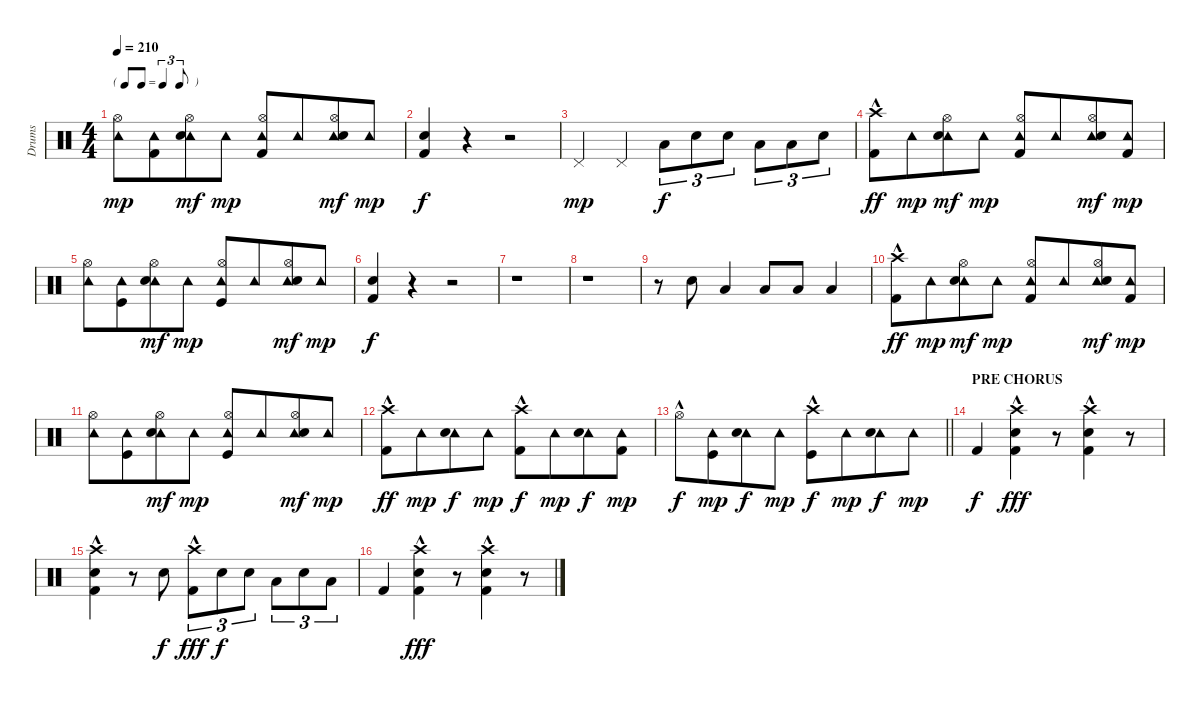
\track ("Drums" "Drums") {instrument percussion}
\staff {score}
\articulation defaults
\ts (4 4)
\tf triplet8th
\tempo 210
\clef neutral
\ks c
("Tambourine (hit)" "Hi-Hat (open)").8{dy mp} ("Tambourine (hit)" "Kick (hit) 2").8{beam merge} ("Tambourine (hit)" "Hi-Hat (open)" "Electric Snare (hit)").8{dy mf} "Tambourine (hit)".8{dy mp} ("Tambourine (hit)" "Hi-Hat (open)" "Kick (hit) 2").8 "Tambourine (hit)".8{beam merge} ("Tambourine (hit)" "Hi-Hat (open)" "Electric Snare (hit)").8{dy mf} "Tambourine (hit)".8{dy mp} |
("Electric Snare (hit)" "Kick (hit) 2").4{dy f} r.4 r.2 |
"Pedal Hi-Hat (hit)".4{dy mp} "Pedal Hi-Hat (hit)".4 "Low Tom (hit)".8{tu (3 2) dy f} "Electric Snare (hit)".8{tu (3 2)} "Electric Snare (hit)".8{tu (3 2)} "Low Tom (hit)".8{tu (3 2)} "Low Floor Tom (hit)".8{tu (3 2)} "Electric Snare (hit)".8{tu (3 2)} |
("Crash high (hit)"{hac} "Kick (hit) 2").8{dy ff} "Tambourine (hit)".8{dy mp beam merge} ("Tambourine (hit)" "Hi-Hat (open)" "Electric Snare (hit)").8{dy mf} "Tambourine (hit)".8{dy mp} ("Tambourine (hit)" "Hi-Hat (open)" "Kick (hit) 2").8 "Tambourine (hit)".8{beam merge} ("Tambourine (hit)" "Hi-Hat (open)" "Electric Snare (hit)").8{dy mf} ("Tambourine (hit)" "Kick (hit) 2").8{dy mp} |
("Tambourine (hit)" "Hi-Hat (open)").8 ("Tambourine (hit)" "Kick (hit)").8{beam merge} ("Tambourine (hit)" "Hi-Hat (open)" "Electric Snare (hit)").8{dy mf} "Tambourine (hit)".8{dy mp} ("Tambourine (hit)" "Hi-Hat (open)" "Kick (hit)").8 "Tambourine (hit)".8{beam merge} ("Tambourine (hit)" "Hi-Hat (open)" "Electric Snare (hit)").8{dy mf} "Tambourine (hit)".8{dy mp} |
("Electric Snare (hit)" "Kick (hit) 2").4{dy f} r.4 r.2 |
r.1 |
r.1 |
r.8 "Electric Snare (hit)".8 "Low Floor Tom (hit)".4 "Low Floor Tom (hit)".8 "Low Floor Tom (hit)".8 "Low Floor Tom (hit)".4 |
("Crash high (hit)"{hac} "Kick (hit) 2").8{dy ff} "Tambourine (hit)".8{dy mp beam merge} ("Tambourine (hit)" "Hi-Hat (open)" "Electric Snare (hit)").8{dy mf} "Tambourine (hit)".8{dy mp} ("Tambourine (hit)" "Hi-Hat (open)" "Kick (hit) 2").8 "Tambourine (hit)".8{beam merge} ("Tambourine (hit)" "Hi-Hat (open)" "Electric Snare (hit)").8{dy mf} ("Tambourine (hit)" "Kick (hit) 2").8{dy mp} |
("Tambourine (hit)" "Hi-Hat (open)").8 ("Tambourine (hit)" "Kick (hit)").8{beam merge} ("Tambourine (hit)" "Hi-Hat (open)" "Electric Snare (hit)").8{dy mf} "Tambourine (hit)".8{dy mp} ("Tambourine (hit)" "Hi-Hat (open)" "Kick (hit)").8 "Tambourine (hit)".8{beam merge} ("Tambourine (hit)" "Hi-Hat (open)" "Electric Snare (hit)").8{dy mf} "Tambourine (hit)".8{dy mp} |
("Crash high (hit)"{hac} "Kick (hit) 2").8{dy ff} "Tambourine (hit)".8{dy mp beam merge} ("Tambourine (hit)" "Electric Snare (hit)").8{dy f} "Tambourine (hit)".8{dy mp} ("Crash high (hit)"{hac} "Kick (hit) 2").8{dy f} "Tambourine (hit)".8{dy mp beam merge} ("Tambourine (hit)" "Electric Snare (hit)").8{dy f} ("Tambourine (hit)" "Kick (hit) 2").8{dy mp} |
\barLineRight lightlight "Hi-Hat (open)"{hac}.8{dy f}
("Tambourine (hit)" "Kick (hit)").8{dy mp beam merge} ("Tambourine (hit)" "Electric Snare (hit)").8{dy f} "Tambourine (hit)".8{dy mp} ("Crash high (hit)"{hac} "Kick (hit)").8{dy f} "Tambourine (hit)".8{dy mp beam merge} ("Tambourine (hit)" "Electric Snare (hit)").8{dy f} "Tambourine (hit)".8{dy mp} |
\section ("" "PRE CHORUS")
"Kick (hit) 2".4{dy f} ("Crash high (hit)"{hac} "Electric Snare (hit)" "Kick (hit) 2").4{dy fff} r.8 ("Crash high (hit)"{hac} "Electric Snare (hit)" "Kick (hit) 2").4 r.8 |
("Crash high (hit)"{hac} "Electric Snare (hit)" "Kick (hit) 2").4 r.8 "Electric Snare (hit)".8{dy f} ("Crash high (hit)"{hac} "Kick (hit) 2").8{tu (3 2) dy fff} "Electric Snare (hit)".8{tu (3 2) dy f} "Electric Snare (hit)".8{tu (3 2)} "Low Tom (hit)".8{tu (3 2)} "Electric Snare (hit)".8{tu (3 2)} "Low Tom (hit)".8{tu (3 2)} |
"Kick (hit) 2".4 ("Crash high (hit)"{hac} "Electric Snare (hit)" "Kick (hit) 2").4{dy fff} r.8 ("Crash high (hit)"{hac} "Electric Snare (hit)" "Kick (hit) 2").4 r.8
